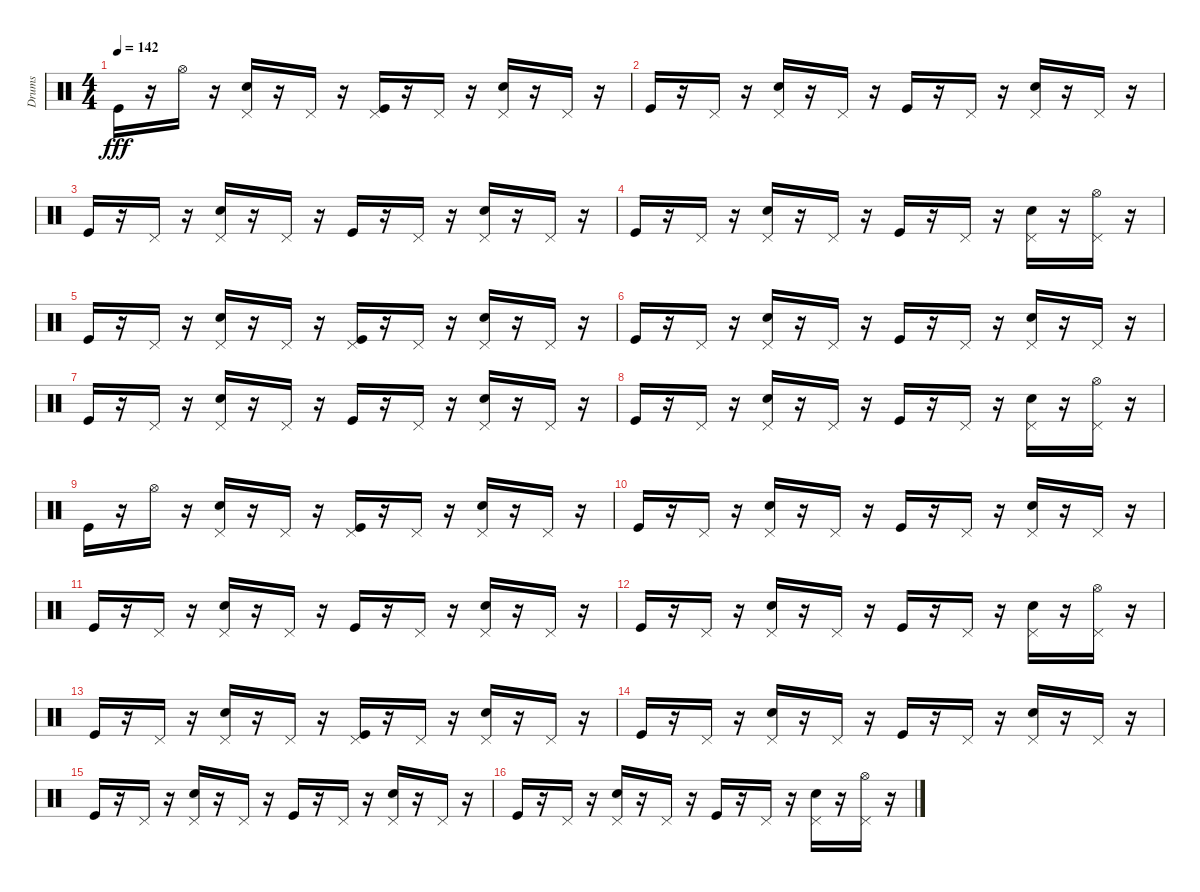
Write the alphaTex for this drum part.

\track ("Drums" "Drums") {instrument percussion}
\staff {score}
\articulation defaults
\ts (4 4)
\tempo 142
\clef neutral
\ks c "Kick (hit)".16{dy fff}
r.16 "Hi-Hat (open)".16 r.16 ("Snare (hit) 2" "Pedal Hi-Hat (hit)").16 r.16 "Pedal Hi-Hat (hit)".16 r.16 ("Kick (hit)" "Pedal Hi-Hat (hit)").16 r.16 "Pedal Hi-Hat (hit)".16 r.16 ("Snare (hit) 2" "Pedal Hi-Hat (hit)").16 r.16 "Pedal Hi-Hat (hit)".16 r.16 |
"Kick (hit)".16 r.16 "Pedal Hi-Hat (hit)".16 r.16 ("Snare (hit) 2" "Pedal Hi-Hat (hit)").16 r.16 "Pedal Hi-Hat (hit)".16 r.16 "Kick (hit)".16 r.16 "Pedal Hi-Hat (hit)".16 r.16 ("Snare (hit) 2" "Pedal Hi-Hat (hit)").16 r.16 "Pedal Hi-Hat (hit)".16 r.16 |
"Kick (hit)".16 r.16 "Pedal Hi-Hat (hit)".16 r.16 ("Snare (hit) 2" "Pedal Hi-Hat (hit)").16 r.16 "Pedal Hi-Hat (hit)".16 r.16 "Kick (hit)".16 r.16 "Pedal Hi-Hat (hit)".16 r.16 ("Snare (hit) 2" "Pedal Hi-Hat (hit)").16 r.16 "Pedal Hi-Hat (hit)".16 r.16 |
"Kick (hit)".16 r.16 "Pedal Hi-Hat (hit)".16 r.16 ("Snare (hit) 2" "Pedal Hi-Hat (hit)").16 r.16 "Pedal Hi-Hat (hit)".16 r.16 "Kick (hit)".16 r.16 "Pedal Hi-Hat (hit)".16 r.16 ("Snare (hit) 2" "Pedal Hi-Hat (hit)").16 r.16 ("Pedal Hi-Hat (hit)" "Hi-Hat (open)").16 r.16 |
"Kick (hit)".16 r.16 "Pedal Hi-Hat (hit)".16 r.16 ("Snare (hit) 2" "Pedal Hi-Hat (hit)").16 r.16 "Pedal Hi-Hat (hit)".16 r.16 ("Kick (hit)" "Pedal Hi-Hat (hit)").16 r.16 "Pedal Hi-Hat (hit)".16 r.16 ("Snare (hit) 2" "Pedal Hi-Hat (hit)").16 r.16 "Pedal Hi-Hat (hit)".16 r.16 |
"Kick (hit)".16 r.16 "Pedal Hi-Hat (hit)".16 r.16 ("Snare (hit) 2" "Pedal Hi-Hat (hit)").16 r.16 "Pedal Hi-Hat (hit)".16 r.16 "Kick (hit)".16 r.16 "Pedal Hi-Hat (hit)".16 r.16 ("Snare (hit) 2" "Pedal Hi-Hat (hit)").16 r.16 "Pedal Hi-Hat (hit)".16 r.16 |
"Kick (hit)".16 r.16 "Pedal Hi-Hat (hit)".16 r.16 ("Snare (hit) 2" "Pedal Hi-Hat (hit)").16 r.16 "Pedal Hi-Hat (hit)".16 r.16 "Kick (hit)".16 r.16 "Pedal Hi-Hat (hit)".16 r.16 ("Snare (hit) 2" "Pedal Hi-Hat (hit)").16 r.16 "Pedal Hi-Hat (hit)".16 r.16 |
"Kick (hit)".16 r.16 "Pedal Hi-Hat (hit)".16 r.16 ("Snare (hit) 2" "Pedal Hi-Hat (hit)").16 r.16 "Pedal Hi-Hat (hit)".16 r.16 "Kick (hit)".16 r.16 "Pedal Hi-Hat (hit)".16 r.16 ("Snare (hit) 2" "Pedal Hi-Hat (hit)").16 r.16 ("Pedal Hi-Hat (hit)" "Hi-Hat (open)").16 r.16 |
"Kick (hit)".16 r.16 "Hi-Hat (open)".16 r.16 ("Snare (hit) 2" "Pedal Hi-Hat (hit)").16 r.16 "Pedal Hi-Hat (hit)".16 r.16 ("Kick (hit)" "Pedal Hi-Hat (hit)").16 r.16 "Pedal Hi-Hat (hit)".16 r.16 ("Snare (hit) 2" "Pedal Hi-Hat (hit)").16 r.16 "Pedal Hi-Hat (hit)".16 r.16 |
"Kick (hit)".16 r.16 "Pedal Hi-Hat (hit)".16 r.16 ("Snare (hit) 2" "Pedal Hi-Hat (hit)").16 r.16 "Pedal Hi-Hat (hit)".16 r.16 "Kick (hit)".16 r.16 "Pedal Hi-Hat (hit)".16 r.16 ("Snare (hit) 2" "Pedal Hi-Hat (hit)").16 r.16 "Pedal Hi-Hat (hit)".16 r.16 |
"Kick (hit)".16 r.16 "Pedal Hi-Hat (hit)".16 r.16 ("Snare (hit) 2" "Pedal Hi-Hat (hit)").16 r.16 "Pedal Hi-Hat (hit)".16 r.16 "Kick (hit)".16 r.16 "Pedal Hi-Hat (hit)".16 r.16 ("Snare (hit) 2" "Pedal Hi-Hat (hit)").16 r.16 "Pedal Hi-Hat (hit)".16 r.16 |
"Kick (hit)".16 r.16 "Pedal Hi-Hat (hit)".16 r.16 ("Snare (hit) 2" "Pedal Hi-Hat (hit)").16 r.16 "Pedal Hi-Hat (hit)".16 r.16 "Kick (hit)".16 r.16 "Pedal Hi-Hat (hit)".16 r.16 ("Snare (hit) 2" "Pedal Hi-Hat (hit)").16 r.16 ("Pedal Hi-Hat (hit)" "Hi-Hat (open)").16 r.16 |
"Kick (hit)".16 r.16 "Pedal Hi-Hat (hit)".16 r.16 ("Snare (hit) 2" "Pedal Hi-Hat (hit)").16 r.16 "Pedal Hi-Hat (hit)".16 r.16 ("Kick (hit)" "Pedal Hi-Hat (hit)").16 r.16 "Pedal Hi-Hat (hit)".16 r.16 ("Snare (hit) 2" "Pedal Hi-Hat (hit)").16 r.16 "Pedal Hi-Hat (hit)".16 r.16 |
"Kick (hit)".16 r.16 "Pedal Hi-Hat (hit)".16 r.16 ("Snare (hit) 2" "Pedal Hi-Hat (hit)").16 r.16 "Pedal Hi-Hat (hit)".16 r.16 "Kick (hit)".16 r.16 "Pedal Hi-Hat (hit)".16 r.16 ("Snare (hit) 2" "Pedal Hi-Hat (hit)").16 r.16 "Pedal Hi-Hat (hit)".16 r.16 |
"Kick (hit)".16 r.16 "Pedal Hi-Hat (hit)".16 r.16 ("Snare (hit) 2" "Pedal Hi-Hat (hit)").16 r.16 "Pedal Hi-Hat (hit)".16 r.16 "Kick (hit)".16 r.16 "Pedal Hi-Hat (hit)".16 r.16 ("Snare (hit) 2" "Pedal Hi-Hat (hit)").16 r.16 "Pedal Hi-Hat (hit)".16 r.16 |
"Kick (hit)".16 r.16 "Pedal Hi-Hat (hit)".16 r.16 ("Snare (hit) 2" "Pedal Hi-Hat (hit)").16 r.16 "Pedal Hi-Hat (hit)".16 r.16 "Kick (hit)".16 r.16 "Pedal Hi-Hat (hit)".16 r.16 ("Snare (hit) 2" "Pedal Hi-Hat (hit)").16 r.16 ("Pedal Hi-Hat (hit)" "Hi-Hat (open)").16 r.16
